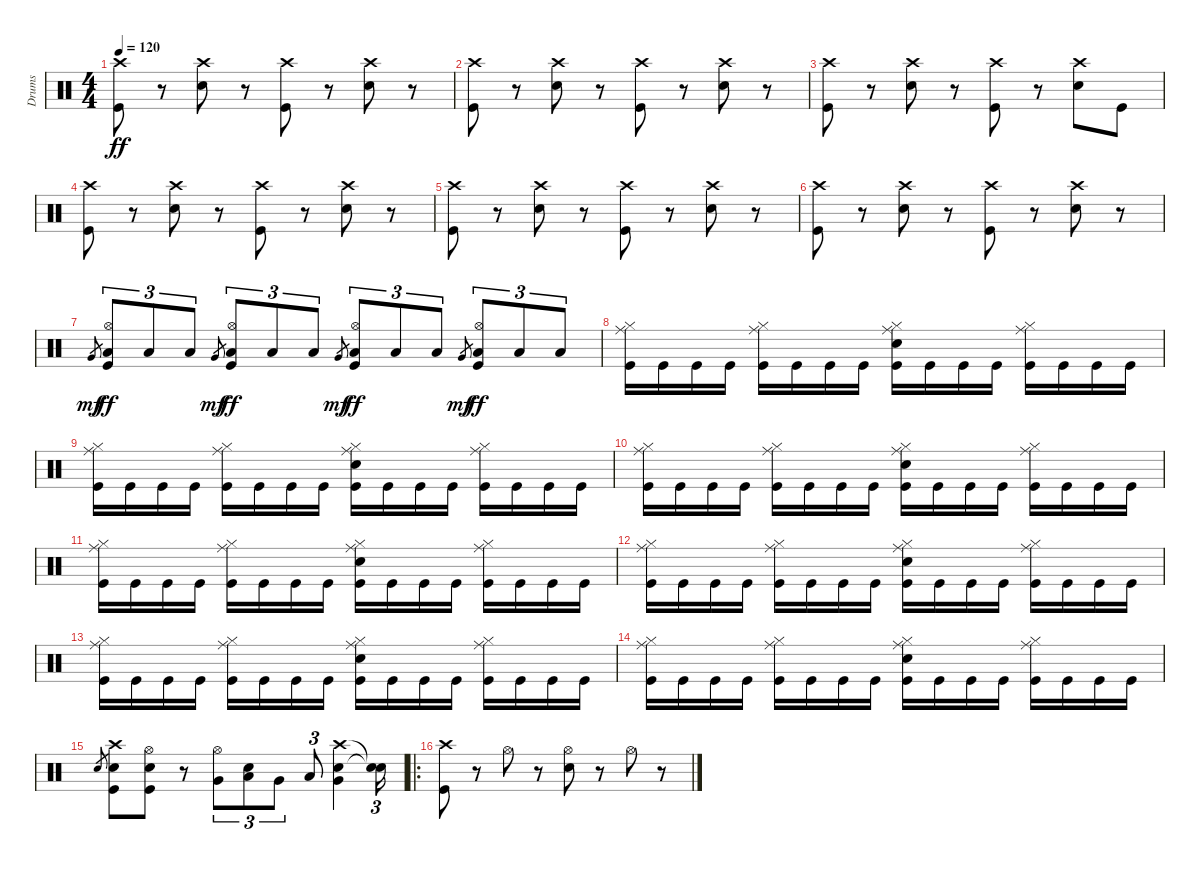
\track ("Drums" "Drums") {instrument percussion}
\staff {score}
\articulation defaults
\ts (4 4)
\tempo 120
\clef neutral
\ks c
("Crash high (hit)" "Kick (hit)").8{dy ff} r.8 ("Crash high (hit)" "Snare (hit) 2").8 r.8 ("Crash high (hit)" "Kick (hit)").8 r.8 ("Crash high (hit)" "Snare (hit) 2").8 r.8 |
("Crash high (hit)" "Kick (hit)").8 r.8 ("Crash high (hit)" "Snare (hit) 2").8 r.8 ("Crash high (hit)" "Kick (hit)").8 r.8 ("Crash high (hit)" "Snare (hit) 2").8 r.8 |
("Crash high (hit)" "Kick (hit)").8 r.8 ("Crash high (hit)" "Snare (hit) 2").8 r.8 ("Crash high (hit)" "Kick (hit)").8 r.8 ("Crash high (hit)" "Snare (hit) 2").8 "Kick (hit)".8 |
("Crash high (hit)" "Kick (hit)").8 r.8 ("Crash high (hit)" "Snare (hit) 2").8 r.8 ("Crash high (hit)" "Kick (hit)").8 r.8 ("Crash high (hit)" "Snare (hit) 2").8 r.8 |
("Crash high (hit)" "Kick (hit)").8 r.8 ("Crash high (hit)" "Snare (hit) 2").8 r.8 ("Crash high (hit)" "Kick (hit)").8 r.8 ("Crash high (hit)" "Snare (hit) 2").8 r.8 |
("Crash high (hit)" "Kick (hit)").8 r.8 ("Crash high (hit)" "Snare (hit) 2").8 r.8 ("Crash high (hit)" "Kick (hit)").8 r.8 ("Crash high (hit)" "Snare (hit) 2").8 r.8 |
"Very Low Tom (hit)".8{gr dy mf} ("Hi-Hat (open)" "Low Tom (hit)" "Kick (hit)").8{tu (3 2) dy ff} "Low Floor Tom (hit)".8{tu (3 2)} "Low Floor Tom (hit)".8{tu (3 2)} "Very Low Tom (hit)".8{gr dy mf} ("Hi-Hat (open)" "Low Tom (hit)" "Kick (hit)").8{tu (3 2) dy ff} "Low Floor Tom (hit)".8{tu (3 2)} "Low Floor Tom (hit)".8{tu (3 2)} "Very Low Tom (hit)".8{gr dy mf} ("Hi-Hat (open)" "Low Tom (hit)" "Kick (hit)").8{tu (3 2) dy ff} "Low Floor Tom (hit)".8{tu (3 2)} "Low Floor Tom (hit)".8{tu (3 2)} "Very Low Tom (hit)".8{gr dy mf} ("Hi-Hat (open)" "Low Tom (hit)" "Kick (hit)").8{tu (3 2) dy ff} "Low Floor Tom (hit)".8{tu (3 2)} "Low Floor Tom (hit)".8{tu (3 2)} |
("Ride (middle)" "Hi-Hat (closed)" "Kick (hit)").16 "Kick (hit)".16 "Kick (hit)".16 "Kick (hit)".16 ("Ride (middle)" "Hi-Hat (closed)" "Kick (hit)").16 "Kick (hit)".16 "Kick (hit)".16 "Kick (hit)".16 ("Ride (middle)" "Hi-Hat (closed)" "Snare (hit) 2" "Kick (hit)").16 "Kick (hit)".16 "Kick (hit)".16 "Kick (hit)".16 ("Ride (middle)" "Hi-Hat (closed)" "Kick (hit)").16 "Kick (hit)".16 "Kick (hit)".16 "Kick (hit)".16 |
("Ride (middle)" "Hi-Hat (closed)" "Kick (hit)").16 "Kick (hit)".16 "Kick (hit)".16 "Kick (hit)".16 ("Ride (middle)" "Hi-Hat (closed)" "Kick (hit)").16 "Kick (hit)".16 "Kick (hit)".16 "Kick (hit)".16 ("Ride (middle)" "Hi-Hat (closed)" "Snare (hit) 2" "Kick (hit)").16 "Kick (hit)".16 "Kick (hit)".16 "Kick (hit)".16 ("Ride (middle)" "Hi-Hat (closed)" "Kick (hit)").16 "Kick (hit)".16 "Kick (hit)".16 "Kick (hit)".16 |
("Ride (middle)" "Hi-Hat (closed)" "Kick (hit)").16 "Kick (hit)".16 "Kick (hit)".16 "Kick (hit)".16 ("Ride (middle)" "Hi-Hat (closed)" "Kick (hit)").16 "Kick (hit)".16 "Kick (hit)".16 "Kick (hit)".16 ("Ride (middle)" "Hi-Hat (closed)" "Snare (hit) 2" "Kick (hit)").16 "Kick (hit)".16 "Kick (hit)".16 "Kick (hit)".16 ("Ride (middle)" "Hi-Hat (closed)" "Kick (hit)").16 "Kick (hit)".16 "Kick (hit)".16 "Kick (hit)".16 |
("Ride (middle)" "Hi-Hat (closed)" "Kick (hit)").16 "Kick (hit)".16 "Kick (hit)".16 "Kick (hit)".16 ("Ride (middle)" "Hi-Hat (closed)" "Kick (hit)").16 "Kick (hit)".16 "Kick (hit)".16 "Kick (hit)".16 ("Ride (middle)" "Hi-Hat (closed)" "Snare (hit) 2" "Kick (hit)").16 "Kick (hit)".16 "Kick (hit)".16 "Kick (hit)".16 ("Ride (middle)" "Hi-Hat (closed)" "Kick (hit)").16 "Kick (hit)".16 "Kick (hit)".16 "Kick (hit)".16 |
("Ride (middle)" "Hi-Hat (closed)" "Kick (hit)").16 "Kick (hit)".16 "Kick (hit)".16 "Kick (hit)".16 ("Ride (middle)" "Hi-Hat (closed)" "Kick (hit)").16 "Kick (hit)".16 "Kick (hit)".16 "Kick (hit)".16 ("Ride (middle)" "Hi-Hat (closed)" "Snare (hit) 2" "Kick (hit)").16 "Kick (hit)".16 "Kick (hit)".16 "Kick (hit)".16 ("Ride (middle)" "Hi-Hat (closed)" "Kick (hit)").16 "Kick (hit)".16 "Kick (hit)".16 "Kick (hit)".16 |
("Ride (middle)" "Hi-Hat (closed)" "Kick (hit)").16 "Kick (hit)".16 "Kick (hit)".16 "Kick (hit)".16 ("Ride (middle)" "Hi-Hat (closed)" "Kick (hit)").16 "Kick (hit)".16 "Kick (hit)".16 "Kick (hit)".16 ("Ride (middle)" "Hi-Hat (closed)" "Snare (hit) 2" "Kick (hit)").16 "Kick (hit)".16 "Kick (hit)".16 "Kick (hit)".16 ("Ride (middle)" "Hi-Hat (closed)" "Kick (hit)").16 "Kick (hit)".16 "Kick (hit)".16 "Kick (hit)".16 |
("Ride (middle)" "Hi-Hat (closed)" "Kick (hit)").16 "Kick (hit)".16 "Kick (hit)".16 "Kick (hit)".16 ("Ride (middle)" "Hi-Hat (closed)" "Kick (hit)").16 "Kick (hit)".16 "Kick (hit)".16 "Kick (hit)".16 ("Ride (middle)" "Hi-Hat (closed)" "Snare (hit) 2" "Kick (hit)").16 "Kick (hit)".16 "Kick (hit)".16 "Kick (hit)".16 ("Ride (middle)" "Hi-Hat (closed)" "Kick (hit)").16 "Kick (hit)".16 "Kick (hit)".16 "Kick (hit)".16 |
"Snare (hit) 2".8{gr} ("Crash high (hit)" "Snare (hit) 2" "Kick (hit)").8 ("Hi-Hat (open)" "Snare (hit) 2" "Kick (hit)").8 r.8 ("Hi-Hat (open)" "Very Low Tom (hit)").8{tu (3 2)} ("Snare (hit) 2" "Low Tom (hit)").8{tu (3 2)} "Very Low Tom (hit)".8{tu (3 2)} "Low Floor Tom (hit)".8{tu (3 2)} ("Crash high (hit)" "Snare (hit) 2" "Very Low Tom (hit)").4 ("Snare (hit)"{t} "Snare (hit)"{t}).16{tu (3 2)} |
\ro
("Crash high (hit)" "Kick (hit)").8 r.8 "Hi-Hat (open)".8 r.8 ("Hi-Hat (open)" "Snare (hit) 2").8 r.8 "Hi-Hat (open)".8 r.8
